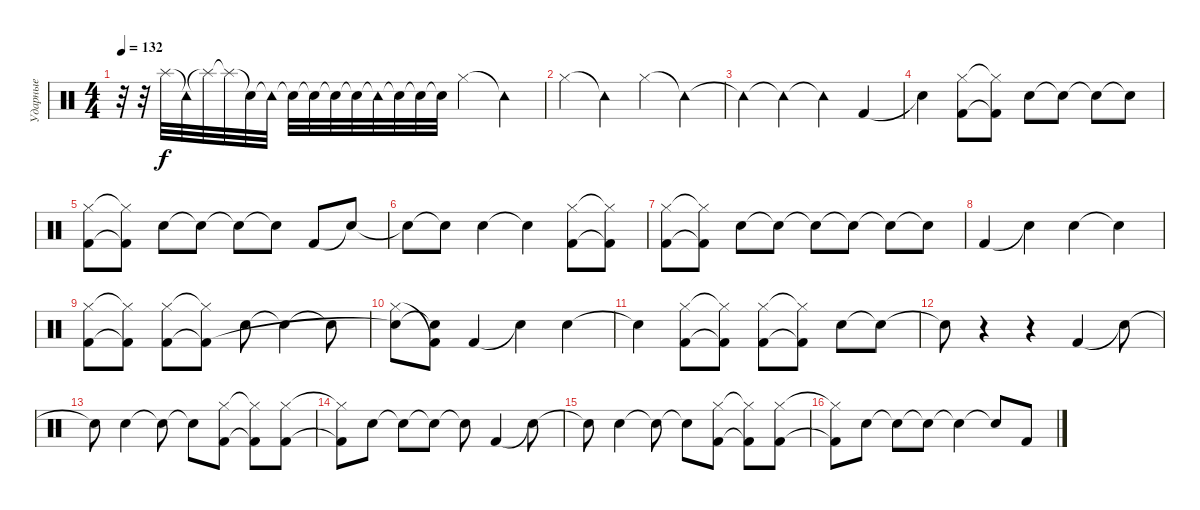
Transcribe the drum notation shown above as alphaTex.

\track ("Ударные" "Ударные") {instrument percussion}
\staff {score}
\articulation defaults
\ts (4 4)
\tempo 132
\clef neutral
\ks c
r.32{dy f} r.32 "Splash (hit)"{t}.32 "Tambourine (hit)"{t}.32 "Splash (hit)"{t}.32 "Splash (hit)"{t}.32 "Snare (hit)"{t}.32 "Tambourine (hit)"{t}.32 "Snare (hit)"{t}.32 "Snare (hit)"{t}.32 "Snare (hit)"{t}.32 "Snare (hit)"{t}.32 "Tambourine (hit)"{t}.32 "Snare (hit)"{t}.32 "Snare (hit)"{t}.32 "Snare (hit)"{t}.32 "Hi-Hat (closed)".4 "Tambourine (hit)"{t}.4 |
"Hi-Hat (closed)".4 "Tambourine (hit)"{t}.4 "Hi-Hat (closed)".4 "Tambourine (hit)"{t}.4 |
"Tambourine (hit)"{t}.4 "Tambourine (hit)"{t}.4 "Tambourine (hit)"{t}.4 "Kick (hit) 2".4{volume 10} |
"Snare (hit) 2"{t}.4 ("Hi-Hat (closed)" "Kick (hit) 2").8 ("Hi-Hat (closed)"{t} "Kick (hit) 2"{t}).8 "Snare (hit) 2".8 "Snare (hit)"{t}.8 "Snare (hit)"{t}.8 "Snare (hit)"{t}.8 |
("Hi-Hat (closed)" "Kick (hit) 2").8 ("Hi-Hat (closed)"{t} "Kick (hit) 2"{t}).8 "Snare (hit) 2".8 "Snare (hit)"{t}.8 "Snare (hit)"{t}.8 "Snare (hit)"{t}.8 "Kick (hit) 2".8 "Snare (hit)"{t}.8 |
"Snare (hit)"{t}.8 "Snare (hit)"{t}.8 "Snare (hit) 2".4 "Snare (hit)"{t}.4 ("Hi-Hat (closed)" "Kick (hit) 2").8 ("Hi-Hat (closed)"{t} "Kick (hit) 2"{t}).8 |
("Hi-Hat (closed)" "Kick (hit) 2").8 ("Hi-Hat (closed)"{t} "Kick (hit) 2"{t}).8 "Snare (hit) 2".8 "Snare (hit)"{t}.8 "Snare (hit)"{t}.8 "Snare (hit)"{t}.8 "Snare (hit)"{t}.8 "Snare (hit)"{t}.8 |
"Kick (hit) 2".4 "Snare (hit)"{t}.4 "Snare (hit) 2".4 "Snare (hit)"{t}.4 |
("Hi-Hat (closed)" "Kick (hit) 2").8 ("Hi-Hat (closed)"{t} "Kick (hit) 2"{t}).8 ("Hi-Hat (closed)" "Kick (hit) 2").8 ("Hi-Hat (closed)"{t} "Kick (hit) 2"{t}).8 "Snare (hit) 2".8 "Snare (hit)"{t}.4 "Snare (hit)"{t}.8 |
("Hi-Hat (closed)" "Snare (hit)"{t}).8 ("Kick (hit) 2"{t} "Snare (hit)"{t}).8 "Kick (hit) 2".4 "Snare (hit)"{t}.4 "Snare (hit) 2".4 |
"Snare (hit)"{t}.4 ("Hi-Hat (closed)" "Kick (hit) 2").8 ("Hi-Hat (closed)"{t} "Kick (hit) 2"{t}).8 ("Hi-Hat (closed)" "Kick (hit) 2").8 ("Hi-Hat (closed)"{t} "Kick (hit) 2"{t}).8 "Snare (hit) 2".8 "Snare (hit)"{t}.8 |
"Snare (hit)"{t}.8 r.4 r.4 "Kick (hit) 2".4 "Snare (hit)"{t}.8 |
"Snare (hit)"{t}.8 "Snare (hit) 2".4 "Snare (hit)"{t}.8 "Snare (hit)"{t}.8 ("Hi-Hat (closed)" "Kick (hit) 2").8 ("Hi-Hat (closed)"{t} "Kick (hit) 2"{t}).8 ("Hi-Hat (closed)" "Kick (hit) 2").8 |
("Hi-Hat (closed)"{t} "Kick (hit) 2"{t}).8 "Snare (hit) 2".8 "Snare (hit)"{t}.8 "Snare (hit)"{t}.8 "Snare (hit)"{t}.8 "Kick (hit) 2".4 "Snare (hit)"{t}.8 |
"Snare (hit)"{t}.8 "Snare (hit) 2".4 "Snare (hit)"{t}.8 "Snare (hit)"{t}.8 ("Hi-Hat (closed)" "Kick (hit) 2").8 ("Hi-Hat (closed)"{t} "Kick (hit) 2"{t}).8 ("Hi-Hat (closed)" "Kick (hit) 2").8 |
("Hi-Hat (closed)"{t} "Kick (hit) 2"{t}).8 "Snare (hit) 2".8 "Snare (hit)"{t}.8 "Snare (hit)"{t}.8 "Snare (hit)"{t}.4 "Snare (hit)"{t}.8 "Kick (hit) 2".8
